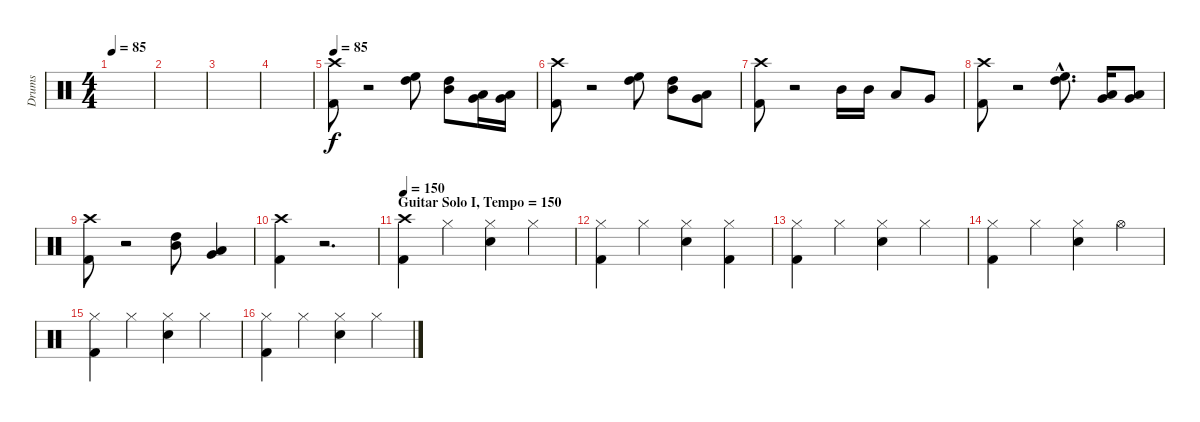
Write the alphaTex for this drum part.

\track ("Drums" "Drums") {instrument percussion}
\staff {score}
\articulation defaults
\ts (4 4)
\tempo 85
\clef neutral
\ks c
|
|
|
|
\tempo 85
("Crash high (hit)" "Kick (hit) 2").8 r.2 ("High Floor Tom (hit)" "High Tom (hit)").8 ("Mid Tom (hit)" "High Tom (hit)").8 ("Low Tom (hit)" "Very Low Tom (hit)").16 ("Low Tom (hit)" "Very Low Tom (hit)").16 |
("Crash high (hit)" "Kick (hit) 2").8 r.2 ("High Floor Tom (hit)" "High Tom (hit)").8 ("Mid Tom (hit)" "High Tom (hit)").8 ("Low Tom (hit)" "Very Low Tom (hit)").8 |
("Crash high (hit)" "Kick (hit) 2").8 r.2 "Mid Tom (hit)".16 "Mid Tom (hit)".16 "Low Tom (hit)".8 "Very Low Tom (hit)".8 |
("Crash high (hit)" "Kick (hit) 2").8 r.2 ("High Floor Tom (hit)"{hac} "High Tom (hit)"{hac}).8{d} ("Low Tom (hit)" "Very Low Tom (hit)").16 ("Low Tom (hit)" "Very Low Tom (hit)").8 |
("Crash high (hit)" "Kick (hit) 2").8 r.2 ("High Tom (hit)" "Mid Tom (hit)").8 ("Low Tom (hit)" "Very Low Tom (hit)").4 |
("Crash high (hit)" "Kick (hit) 2").4 r.2{d} |
\section ("" "Guitar Solo I, Tempo = 150")
\tempo 150
("Crash high (hit)" "Kick (hit) 2").4 "Hi-Hat (closed)".4 ("Hi-Hat (closed)" "Electric Snare (hit)").4 "Hi-Hat (closed)".4 |
("Hi-Hat (closed)" "Kick (hit) 2").4 "Hi-Hat (closed)".4 ("Hi-Hat (closed)" "Electric Snare (hit)").4 ("Hi-Hat (closed)" "Kick (hit) 2").4 |
("Hi-Hat (closed)" "Kick (hit) 2").4 "Hi-Hat (closed)".4 ("Hi-Hat (closed)" "Electric Snare (hit)").4 "Hi-Hat (closed)".4 |
("Hi-Hat (closed)" "Kick (hit) 2").4 "Hi-Hat (closed)".4 ("Hi-Hat (closed)" "Electric Snare (hit)").4 "Hi-Hat (open)".4 |
("Hi-Hat (closed)" "Kick (hit) 2").4 "Hi-Hat (closed)".4 ("Hi-Hat (closed)" "Electric Snare (hit)").4 "Hi-Hat (closed)".4 |
("Hi-Hat (closed)" "Kick (hit) 2").4 "Hi-Hat (closed)".4 ("Hi-Hat (closed)" "Electric Snare (hit)").4 "Hi-Hat (closed)".4
